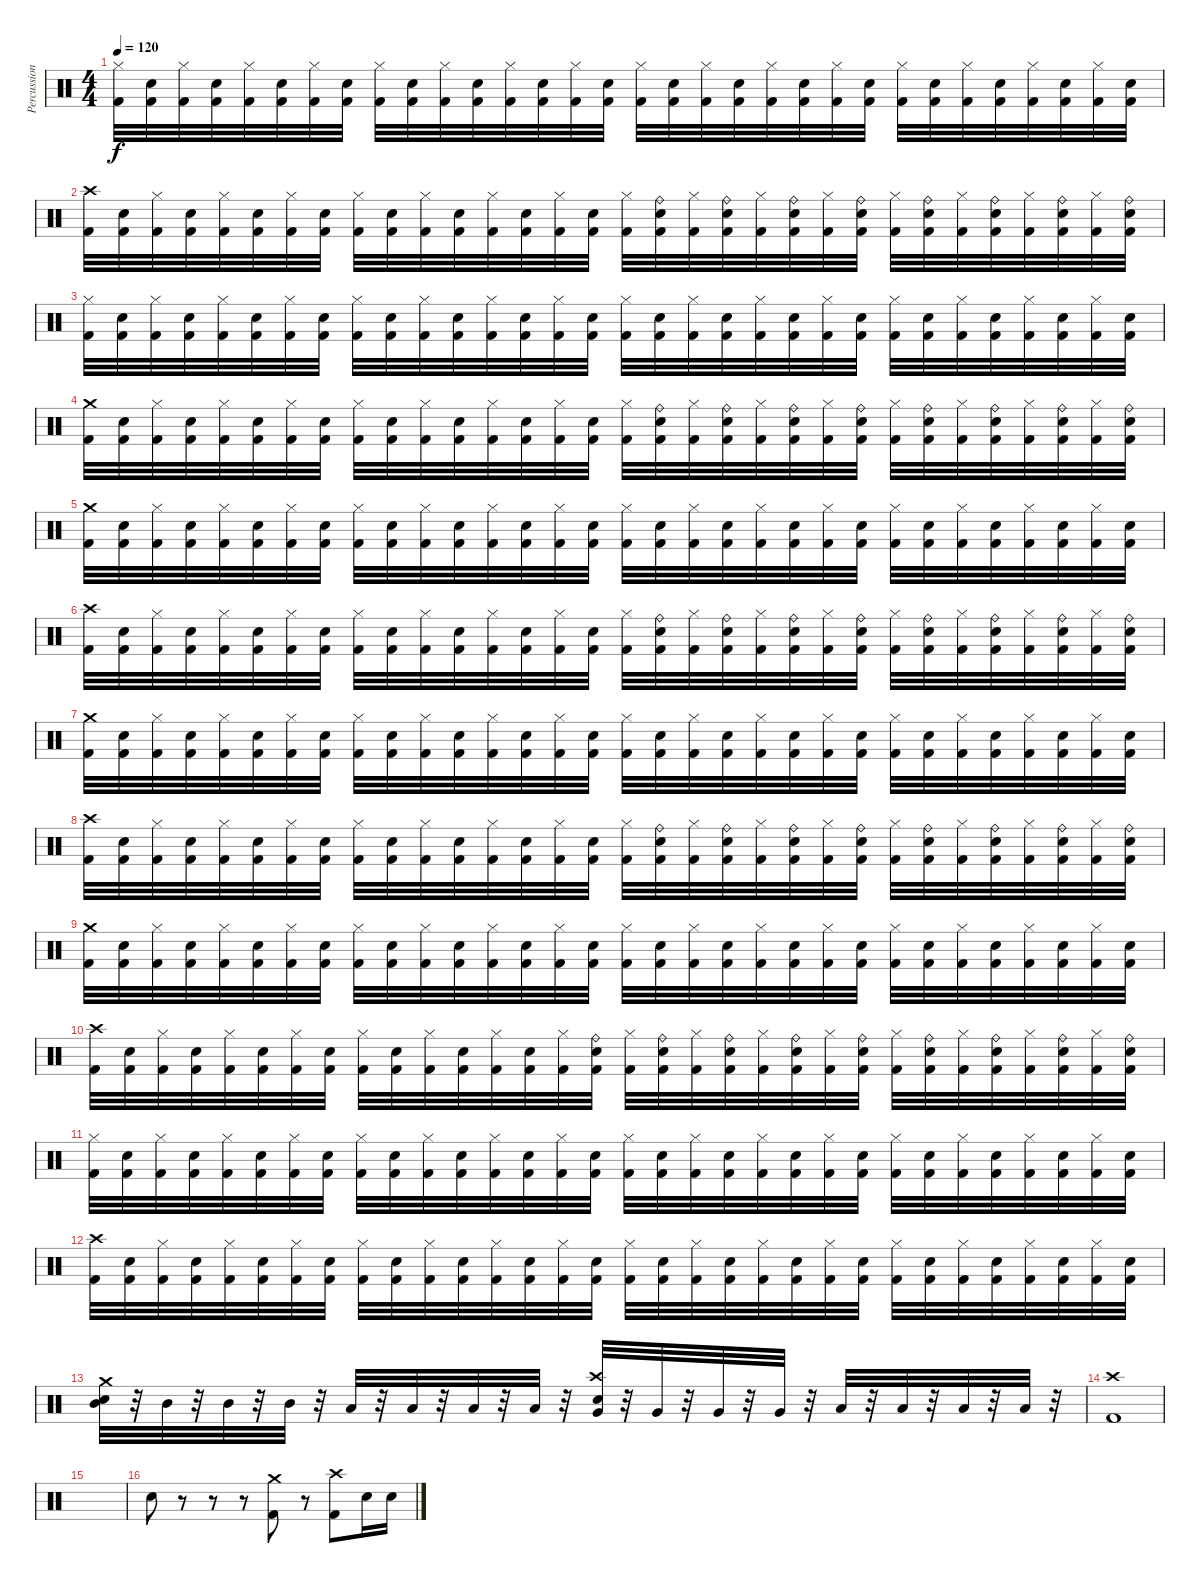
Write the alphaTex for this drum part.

\track ("Percussion" "Percussion") {instrument percussion}
\staff {score}
\articulation defaults
\ts (4 4)
\tempo 120
\clef neutral
\ks c
("Hi-Hat (closed)" "Kick (hit) 2").32{dy f} ("Snare (hit) 2" "Kick (hit) 2").32 ("Hi-Hat (closed)" "Kick (hit) 2").32 ("Snare (hit) 2" "Kick (hit) 2").32 ("Hi-Hat (closed)" "Kick (hit) 2").32 ("Snare (hit) 2" "Kick (hit) 2").32 ("Hi-Hat (closed)" "Kick (hit) 2").32 ("Snare (hit) 2" "Kick (hit) 2").32 ("Hi-Hat (closed)" "Kick (hit) 2").32 ("Snare (hit) 2" "Kick (hit) 2").32 ("Hi-Hat (closed)" "Kick (hit) 2").32 ("Snare (hit) 2" "Kick (hit) 2").32 ("Hi-Hat (closed)" "Kick (hit) 2").32 ("Snare (hit) 2" "Kick (hit) 2").32 ("Hi-Hat (closed)" "Kick (hit) 2").32 ("Snare (hit) 2" "Kick (hit) 2").32 ("Hi-Hat (closed)" "Kick (hit) 2").32 ("Snare (hit) 2" "Kick (hit) 2").32 ("Hi-Hat (closed)" "Kick (hit) 2").32 ("Snare (hit) 2" "Kick (hit) 2").32 ("Hi-Hat (closed)" "Kick (hit) 2").32 ("Snare (hit) 2" "Kick (hit) 2").32 ("Hi-Hat (closed)" "Kick (hit) 2").32 ("Snare (hit) 2" "Kick (hit) 2").32 ("Hi-Hat (closed)" "Kick (hit) 2").32 ("Snare (hit) 2" "Kick (hit) 2").32 ("Hi-Hat (closed)" "Kick (hit) 2").32 ("Snare (hit) 2" "Kick (hit) 2").32 ("Hi-Hat (closed)" "Kick (hit) 2").32 ("Snare (hit) 2" "Kick (hit) 2").32 ("Hi-Hat (closed)" "Kick (hit) 2").32 ("Snare (hit) 2" "Kick (hit) 2").32 |
("Crash high (hit)" "Kick (hit) 2").32 ("Snare (hit) 2" "Kick (hit) 2").32 ("Hi-Hat (closed)" "Kick (hit) 2").32 ("Snare (hit) 2" "Kick (hit) 2").32 ("Hi-Hat (closed)" "Kick (hit) 2").32 ("Snare (hit) 2" "Kick (hit) 2").32 ("Hi-Hat (closed)" "Kick (hit) 2").32 ("Snare (hit) 2" "Kick (hit) 2").32 ("Hi-Hat (closed)" "Kick (hit) 2").32 ("Snare (hit) 2" "Kick (hit) 2").32 ("Hi-Hat (closed)" "Kick (hit) 2").32 ("Snare (hit) 2" "Kick (hit) 2").32 ("Hi-Hat (closed)" "Kick (hit) 2").32 ("Snare (hit) 2" "Kick (hit) 2").32 ("Hi-Hat (closed)" "Kick (hit) 2").32 ("Snare (hit) 2" "Kick (hit) 2").32 ("Hi-Hat (closed)" "Kick (hit) 2").32 ("Snare (hit) 2" "Ride (bell)" "Kick (hit) 2").32 ("Hi-Hat (closed)" "Kick (hit) 2").32 ("Snare (hit) 2" "Ride (bell)" "Kick (hit) 2").32 ("Hi-Hat (closed)" "Kick (hit) 2").32 ("Snare (hit) 2" "Ride (bell)" "Kick (hit) 2").32 ("Hi-Hat (closed)" "Kick (hit) 2").32 ("Snare (hit) 2" "Ride (bell)" "Kick (hit) 2").32 ("Hi-Hat (closed)" "Kick (hit) 2").32 ("Snare (hit) 2" "Ride (bell)" "Kick (hit) 2").32 ("Hi-Hat (closed)" "Kick (hit) 2").32 ("Snare (hit) 2" "Ride (bell)" "Kick (hit) 2").32 ("Hi-Hat (closed)" "Kick (hit) 2").32 ("Snare (hit) 2" "Ride (bell)" "Kick (hit) 2").32 ("Hi-Hat (closed)" "Kick (hit) 2").32 ("Snare (hit) 2" "Ride (bell)" "Kick (hit) 2").32 |
("Hi-Hat (closed)" "Kick (hit) 2").32 ("Snare (hit) 2" "Kick (hit) 2").32 ("Hi-Hat (closed)" "Kick (hit) 2").32 ("Snare (hit) 2" "Kick (hit) 2").32 ("Hi-Hat (closed)" "Kick (hit) 2").32 ("Snare (hit) 2" "Kick (hit) 2").32 ("Hi-Hat (closed)" "Kick (hit) 2").32 ("Snare (hit) 2" "Kick (hit) 2").32 ("Hi-Hat (closed)" "Kick (hit) 2").32 ("Snare (hit) 2" "Kick (hit) 2").32 ("Hi-Hat (closed)" "Kick (hit) 2").32 ("Snare (hit) 2" "Kick (hit) 2").32 ("Hi-Hat (closed)" "Kick (hit) 2").32 ("Snare (hit) 2" "Kick (hit) 2").32 ("Hi-Hat (closed)" "Kick (hit) 2").32 ("Snare (hit) 2" "Kick (hit) 2").32 ("Hi-Hat (closed)" "Kick (hit) 2").32 ("Snare (hit) 2" "Kick (hit) 2").32 ("Hi-Hat (closed)" "Kick (hit) 2").32 ("Snare (hit) 2" "Kick (hit) 2").32 ("Hi-Hat (closed)" "Kick (hit) 2").32 ("Snare (hit) 2" "Kick (hit) 2").32 ("Hi-Hat (closed)" "Kick (hit) 2").32 ("Snare (hit) 2" "Kick (hit) 2").32 ("Hi-Hat (closed)" "Kick (hit) 2").32 ("Snare (hit) 2" "Kick (hit) 2").32 ("Hi-Hat (closed)" "Kick (hit) 2").32 ("Snare (hit) 2" "Kick (hit) 2").32 ("Hi-Hat (closed)" "Kick (hit) 2").32 ("Snare (hit) 2" "Kick (hit) 2").32 ("Hi-Hat (closed)" "Kick (hit) 2").32 ("Snare (hit) 2" "Kick (hit) 2").32 |
("Crash medium (hit)" "Kick (hit) 2").32 ("Snare (hit) 2" "Kick (hit) 2").32 ("Hi-Hat (closed)" "Kick (hit) 2").32 ("Snare (hit) 2" "Kick (hit) 2").32 ("Hi-Hat (closed)" "Kick (hit) 2").32 ("Snare (hit) 2" "Kick (hit) 2").32 ("Hi-Hat (closed)" "Kick (hit) 2").32 ("Snare (hit) 2" "Kick (hit) 2").32 ("Hi-Hat (closed)" "Kick (hit) 2").32 ("Snare (hit) 2" "Kick (hit) 2").32 ("Hi-Hat (closed)" "Kick (hit) 2").32 ("Snare (hit) 2" "Kick (hit) 2").32 ("Hi-Hat (closed)" "Kick (hit) 2").32 ("Snare (hit) 2" "Kick (hit) 2").32 ("Hi-Hat (closed)" "Kick (hit) 2").32 ("Snare (hit) 2" "Kick (hit) 2").32 ("Hi-Hat (closed)" "Kick (hit) 2").32 ("Snare (hit) 2" "Ride (bell)" "Kick (hit) 2").32 ("Hi-Hat (closed)" "Kick (hit) 2").32 ("Snare (hit) 2" "Ride (bell)" "Kick (hit) 2").32 ("Hi-Hat (closed)" "Kick (hit) 2").32 ("Snare (hit) 2" "Ride (bell)" "Kick (hit) 2").32 ("Hi-Hat (closed)" "Kick (hit) 2").32 ("Snare (hit) 2" "Ride (bell)" "Kick (hit) 2").32 ("Hi-Hat (closed)" "Kick (hit) 2").32 ("Snare (hit) 2" "Ride (bell)" "Kick (hit) 2").32 ("Hi-Hat (closed)" "Kick (hit) 2").32 ("Snare (hit) 2" "Ride (bell)" "Kick (hit) 2").32 ("Hi-Hat (closed)" "Kick (hit) 2").32 ("Snare (hit) 2" "Ride (bell)" "Kick (hit) 2").32 ("Hi-Hat (closed)" "Kick (hit) 2").32 ("Snare (hit) 2" "Ride (bell)" "Kick (hit) 2").32 |
("Crash medium (hit)" "Kick (hit) 2").32 ("Snare (hit) 2" "Kick (hit) 2").32 ("Hi-Hat (closed)" "Kick (hit) 2").32 ("Snare (hit) 2" "Kick (hit) 2").32 ("Hi-Hat (closed)" "Kick (hit) 2").32 ("Snare (hit) 2" "Kick (hit) 2").32 ("Hi-Hat (closed)" "Kick (hit) 2").32 ("Snare (hit) 2" "Kick (hit) 2").32 ("Hi-Hat (closed)" "Kick (hit) 2").32 ("Snare (hit) 2" "Kick (hit) 2").32 ("Hi-Hat (closed)" "Kick (hit) 2").32 ("Snare (hit) 2" "Kick (hit) 2").32 ("Hi-Hat (closed)" "Kick (hit) 2").32 ("Snare (hit) 2" "Kick (hit) 2").32 ("Hi-Hat (closed)" "Kick (hit) 2").32 ("Snare (hit) 2" "Kick (hit) 2").32 ("Hi-Hat (closed)" "Kick (hit) 2").32 ("Snare (hit) 2" "Kick (hit) 2").32 ("Hi-Hat (closed)" "Kick (hit) 2").32 ("Snare (hit) 2" "Kick (hit) 2").32 ("Hi-Hat (closed)" "Kick (hit) 2").32 ("Snare (hit) 2" "Kick (hit) 2").32 ("Hi-Hat (closed)" "Kick (hit) 2").32 ("Snare (hit) 2" "Kick (hit) 2").32 ("Hi-Hat (closed)" "Kick (hit) 2").32 ("Snare (hit) 2" "Kick (hit) 2").32 ("Hi-Hat (closed)" "Kick (hit) 2").32 ("Snare (hit) 2" "Kick (hit) 2").32 ("Hi-Hat (closed)" "Kick (hit) 2").32 ("Snare (hit) 2" "Kick (hit) 2").32 ("Hi-Hat (closed)" "Kick (hit) 2").32 ("Snare (hit) 2" "Kick (hit) 2").32 |
("Crash high (hit)" "Kick (hit) 2").32 ("Snare (hit) 2" "Kick (hit) 2").32 ("Hi-Hat (closed)" "Kick (hit) 2").32 ("Snare (hit) 2" "Kick (hit) 2").32 ("Hi-Hat (closed)" "Kick (hit) 2").32 ("Snare (hit) 2" "Kick (hit) 2").32 ("Hi-Hat (closed)" "Kick (hit) 2").32 ("Snare (hit) 2" "Kick (hit) 2").32 ("Hi-Hat (closed)" "Kick (hit) 2").32 ("Snare (hit) 2" "Kick (hit) 2").32 ("Hi-Hat (closed)" "Kick (hit) 2").32 ("Snare (hit) 2" "Kick (hit) 2").32 ("Hi-Hat (closed)" "Kick (hit) 2").32 ("Snare (hit) 2" "Kick (hit) 2").32 ("Hi-Hat (closed)" "Kick (hit) 2").32 ("Snare (hit) 2" "Kick (hit) 2").32 ("Hi-Hat (closed)" "Kick (hit) 2").32 ("Snare (hit) 2" "Ride (bell)" "Kick (hit) 2").32 ("Hi-Hat (closed)" "Kick (hit) 2").32 ("Snare (hit) 2" "Ride (bell)" "Kick (hit) 2").32 ("Hi-Hat (closed)" "Kick (hit) 2").32 ("Snare (hit) 2" "Ride (bell)" "Kick (hit) 2").32 ("Hi-Hat (closed)" "Kick (hit) 2").32 ("Snare (hit) 2" "Ride (bell)" "Kick (hit) 2").32 ("Hi-Hat (closed)" "Kick (hit) 2").32 ("Snare (hit) 2" "Ride (bell)" "Kick (hit) 2").32 ("Hi-Hat (closed)" "Kick (hit) 2").32 ("Snare (hit) 2" "Ride (bell)" "Kick (hit) 2").32 ("Hi-Hat (closed)" "Kick (hit) 2").32 ("Snare (hit) 2" "Ride (bell)" "Kick (hit) 2").32 ("Hi-Hat (closed)" "Kick (hit) 2").32 ("Snare (hit) 2" "Ride (bell)" "Kick (hit) 2").32 |
("Crash medium (hit)" "Kick (hit) 2").32 ("Snare (hit) 2" "Kick (hit) 2").32 ("Hi-Hat (closed)" "Kick (hit) 2").32 ("Snare (hit) 2" "Kick (hit) 2").32 ("Hi-Hat (closed)" "Kick (hit) 2").32 ("Snare (hit) 2" "Kick (hit) 2").32 ("Hi-Hat (closed)" "Kick (hit) 2").32 ("Snare (hit) 2" "Kick (hit) 2").32 ("Hi-Hat (closed)" "Kick (hit) 2").32 ("Snare (hit) 2" "Kick (hit) 2").32 ("Hi-Hat (closed)" "Kick (hit) 2").32 ("Snare (hit) 2" "Kick (hit) 2").32 ("Hi-Hat (closed)" "Kick (hit) 2").32 ("Snare (hit) 2" "Kick (hit) 2").32 ("Hi-Hat (closed)" "Kick (hit) 2").32 ("Snare (hit) 2" "Kick (hit) 2").32 ("Hi-Hat (closed)" "Kick (hit) 2").32 ("Snare (hit) 2" "Kick (hit) 2").32 ("Hi-Hat (closed)" "Kick (hit) 2").32 ("Snare (hit) 2" "Kick (hit) 2").32 ("Hi-Hat (closed)" "Kick (hit) 2").32 ("Snare (hit) 2" "Kick (hit) 2").32 ("Hi-Hat (closed)" "Kick (hit) 2").32 ("Snare (hit) 2" "Kick (hit) 2").32 ("Hi-Hat (closed)" "Kick (hit) 2").32 ("Snare (hit) 2" "Kick (hit) 2").32 ("Hi-Hat (closed)" "Kick (hit) 2").32 ("Snare (hit) 2" "Kick (hit) 2").32 ("Hi-Hat (closed)" "Kick (hit) 2").32 ("Snare (hit) 2" "Kick (hit) 2").32 ("Hi-Hat (closed)" "Kick (hit) 2").32 ("Snare (hit) 2" "Kick (hit) 2").32 |
("Crash high (hit)" "Kick (hit) 2").32 ("Snare (hit) 2" "Kick (hit) 2").32 ("Hi-Hat (closed)" "Kick (hit) 2").32 ("Snare (hit) 2" "Kick (hit) 2").32 ("Hi-Hat (closed)" "Kick (hit) 2").32 ("Snare (hit) 2" "Kick (hit) 2").32 ("Hi-Hat (closed)" "Kick (hit) 2").32 ("Snare (hit) 2" "Kick (hit) 2").32 ("Hi-Hat (closed)" "Kick (hit) 2").32 ("Snare (hit) 2" "Kick (hit) 2").32 ("Hi-Hat (closed)" "Kick (hit) 2").32 ("Snare (hit) 2" "Kick (hit) 2").32 ("Hi-Hat (closed)" "Kick (hit) 2").32 ("Snare (hit) 2" "Kick (hit) 2").32 ("Hi-Hat (closed)" "Kick (hit) 2").32 ("Snare (hit) 2" "Kick (hit) 2").32 ("Hi-Hat (closed)" "Kick (hit) 2").32 ("Snare (hit) 2" "Ride (bell)" "Kick (hit) 2").32 ("Hi-Hat (closed)" "Kick (hit) 2").32 ("Snare (hit) 2" "Ride (bell)" "Kick (hit) 2").32 ("Hi-Hat (closed)" "Kick (hit) 2").32 ("Snare (hit) 2" "Ride (bell)" "Kick (hit) 2").32 ("Hi-Hat (closed)" "Kick (hit) 2").32 ("Snare (hit) 2" "Ride (bell)" "Kick (hit) 2").32 ("Hi-Hat (closed)" "Kick (hit) 2").32 ("Snare (hit) 2" "Ride (bell)" "Kick (hit) 2").32 ("Hi-Hat (closed)" "Kick (hit) 2").32 ("Snare (hit) 2" "Ride (bell)" "Kick (hit) 2").32 ("Hi-Hat (closed)" "Kick (hit) 2").32 ("Snare (hit) 2" "Ride (bell)" "Kick (hit) 2").32 ("Hi-Hat (closed)" "Kick (hit) 2").32 ("Snare (hit) 2" "Ride (bell)" "Kick (hit) 2").32 |
("Crash medium (hit)" "Kick (hit) 2").32 ("Snare (hit) 2" "Kick (hit) 2").32 ("Hi-Hat (closed)" "Kick (hit) 2").32 ("Snare (hit) 2" "Kick (hit) 2").32 ("Hi-Hat (closed)" "Kick (hit) 2").32 ("Snare (hit) 2" "Kick (hit) 2").32 ("Hi-Hat (closed)" "Kick (hit) 2").32 ("Snare (hit) 2" "Kick (hit) 2").32 ("Hi-Hat (closed)" "Kick (hit) 2").32 ("Snare (hit) 2" "Kick (hit) 2").32 ("Hi-Hat (closed)" "Kick (hit) 2").32 ("Snare (hit) 2" "Kick (hit) 2").32 ("Hi-Hat (closed)" "Kick (hit) 2").32 ("Snare (hit) 2" "Kick (hit) 2").32 ("Hi-Hat (closed)" "Kick (hit) 2").32 ("Snare (hit) 2" "Kick (hit) 2").32 ("Hi-Hat (closed)" "Kick (hit) 2").32 ("Snare (hit) 2" "Kick (hit) 2").32 ("Hi-Hat (closed)" "Kick (hit) 2").32 ("Snare (hit) 2" "Kick (hit) 2").32 ("Hi-Hat (closed)" "Kick (hit) 2").32 ("Snare (hit) 2" "Kick (hit) 2").32 ("Hi-Hat (closed)" "Kick (hit) 2").32 ("Snare (hit) 2" "Kick (hit) 2").32 ("Hi-Hat (closed)" "Kick (hit) 2").32 ("Snare (hit) 2" "Kick (hit) 2").32 ("Hi-Hat (closed)" "Kick (hit) 2").32 ("Snare (hit) 2" "Kick (hit) 2").32 ("Hi-Hat (closed)" "Kick (hit) 2").32 ("Snare (hit) 2" "Kick (hit) 2").32 ("Hi-Hat (closed)" "Kick (hit) 2").32 ("Snare (hit) 2" "Kick (hit) 2").32 |
("Crash high (hit)" "Kick (hit) 2").32 ("Snare (hit) 2" "Kick (hit) 2").32 ("Hi-Hat (closed)" "Kick (hit) 2").32 ("Snare (hit) 2" "Kick (hit) 2").32 ("Hi-Hat (closed)" "Kick (hit) 2").32 ("Snare (hit) 2" "Kick (hit) 2").32 ("Hi-Hat (closed)" "Kick (hit) 2").32 ("Snare (hit) 2" "Kick (hit) 2").32 ("Hi-Hat (closed)" "Kick (hit) 2").32 ("Snare (hit) 2" "Kick (hit) 2").32 ("Hi-Hat (closed)" "Kick (hit) 2").32 ("Snare (hit) 2" "Kick (hit) 2").32 ("Hi-Hat (closed)" "Kick (hit) 2").32 ("Snare (hit) 2" "Kick (hit) 2").32 ("Hi-Hat (closed)" "Kick (hit) 2").32 ("Snare (hit) 2" "Ride (bell)" "Kick (hit) 2").32 ("Hi-Hat (closed)" "Kick (hit) 2").32 ("Snare (hit) 2" "Ride (bell)" "Kick (hit) 2").32 ("Hi-Hat (closed)" "Kick (hit) 2").32 ("Snare (hit) 2" "Ride (bell)" "Kick (hit) 2").32 ("Hi-Hat (closed)" "Kick (hit) 2").32 ("Snare (hit) 2" "Ride (bell)" "Kick (hit) 2").32 ("Hi-Hat (closed)" "Kick (hit) 2").32 ("Snare (hit) 2" "Ride (bell)" "Kick (hit) 2").32 ("Hi-Hat (closed)" "Kick (hit) 2").32 ("Snare (hit) 2" "Ride (bell)" "Kick (hit) 2").32 ("Hi-Hat (closed)" "Kick (hit) 2").32 ("Snare (hit) 2" "Ride (bell)" "Kick (hit) 2").32 ("Hi-Hat (closed)" "Kick (hit) 2").32 ("Snare (hit) 2" "Ride (bell)" "Kick (hit) 2").32 ("Hi-Hat (closed)" "Kick (hit) 2").32 ("Snare (hit) 2" "Ride (bell)" "Kick (hit) 2").32 |
("Hi-Hat (closed)" "Kick (hit) 2").32 ("Snare (hit) 2" "Kick (hit) 2").32 ("Hi-Hat (closed)" "Kick (hit) 2").32 ("Snare (hit) 2" "Kick (hit) 2").32 ("Hi-Hat (closed)" "Kick (hit) 2").32 ("Snare (hit) 2" "Kick (hit) 2").32 ("Hi-Hat (closed)" "Kick (hit) 2").32 ("Snare (hit) 2" "Kick (hit) 2").32 ("Hi-Hat (closed)" "Kick (hit) 2").32 ("Snare (hit) 2" "Kick (hit) 2").32 ("Hi-Hat (closed)" "Kick (hit) 2").32 ("Snare (hit) 2" "Kick (hit) 2").32 ("Hi-Hat (closed)" "Kick (hit) 2").32 ("Snare (hit) 2" "Kick (hit) 2").32 ("Hi-Hat (closed)" "Kick (hit) 2").32 ("Snare (hit) 2" "Kick (hit) 2").32 ("Hi-Hat (closed)" "Kick (hit) 2").32 ("Snare (hit) 2" "Kick (hit) 2").32 ("Hi-Hat (closed)" "Kick (hit) 2").32 ("Snare (hit) 2" "Kick (hit) 2").32 ("Hi-Hat (closed)" "Kick (hit) 2").32 ("Snare (hit) 2" "Kick (hit) 2").32 ("Hi-Hat (closed)" "Kick (hit) 2").32 ("Snare (hit) 2" "Kick (hit) 2").32 ("Hi-Hat (closed)" "Kick (hit) 2").32 ("Snare (hit) 2" "Kick (hit) 2").32 ("Hi-Hat (closed)" "Kick (hit) 2").32 ("Snare (hit) 2" "Kick (hit) 2").32 ("Hi-Hat (closed)" "Kick (hit) 2").32 ("Snare (hit) 2" "Kick (hit) 2").32 ("Hi-Hat (closed)" "Kick (hit) 2").32 ("Snare (hit) 2" "Kick (hit) 2").32 |
("Crash high (hit)" "Kick (hit) 2").32 ("Snare (hit) 2" "Kick (hit) 2").32 ("Hi-Hat (closed)" "Kick (hit) 2").32 ("Snare (hit) 2" "Kick (hit) 2").32 ("Hi-Hat (closed)" "Kick (hit) 2").32 ("Snare (hit) 2" "Kick (hit) 2").32 ("Hi-Hat (closed)" "Kick (hit) 2").32 ("Snare (hit) 2" "Kick (hit) 2").32 ("Hi-Hat (closed)" "Kick (hit) 2").32 ("Snare (hit) 2" "Kick (hit) 2").32 ("Hi-Hat (closed)" "Kick (hit) 2").32 ("Snare (hit) 2" "Kick (hit) 2").32 ("Hi-Hat (closed)" "Kick (hit) 2").32 ("Snare (hit) 2" "Kick (hit) 2").32 ("Hi-Hat (closed)" "Kick (hit) 2").32 ("Snare (hit) 2" "Kick (hit) 2").32 ("Hi-Hat (closed)" "Kick (hit) 2").32 ("Snare (hit) 2" "Kick (hit) 2").32 ("Hi-Hat (closed)" "Kick (hit) 2").32 ("Snare (hit) 2" "Kick (hit) 2").32 ("Hi-Hat (closed)" "Kick (hit) 2").32 ("Snare (hit) 2" "Kick (hit) 2").32 ("Hi-Hat (closed)" "Kick (hit) 2").32 ("Snare (hit) 2" "Kick (hit) 2").32 ("Hi-Hat (closed)" "Kick (hit) 2").32 ("Snare (hit) 2" "Kick (hit) 2").32 ("Hi-Hat (closed)" "Kick (hit) 2").32 ("Snare (hit) 2" "Kick (hit) 2").32 ("Hi-Hat (closed)" "Kick (hit) 2").32 ("Snare (hit) 2" "Kick (hit) 2").32 ("Hi-Hat (closed)" "Kick (hit) 2").32 ("Snare (hit) 2" "Kick (hit) 2").32 |
("Mid Tom (hit)" "Crash medium (hit)" "Snare (hit) 2").32 r.32 "Mid Tom (hit)".32 r.32 "Mid Tom (hit)".32 r.32 "Mid Tom (hit)".32 r.32 "Low Tom (hit)".32 r.32 "Low Tom (hit)".32 r.32 "Low Tom (hit)".32 r.32 "Low Tom (hit)".32 r.32 ("Very Low Tom (hit)" "Crash high (hit)" "Snare (hit) 2").32 r.32 "Very Low Tom (hit)".32 r.32 "Very Low Tom (hit)".32 r.32 "Very Low Tom (hit)".32 r.32 "Low Floor Tom (hit)".32 r.32 "Low Floor Tom (hit)".32 r.32 "Low Floor Tom (hit)".32 r.32 "Low Floor Tom (hit)".32 r.32 |
("Crash high (hit)" "Kick (hit) 2").1 |
|
"Snare (hit) 2".8 r.8 r.8 r.8 ("Crash medium (hit)" "Kick (hit) 2").8 r.8 ("Crash high (hit)" "Kick (hit) 2").8 "Snare (hit) 2".16 "Snare (hit) 2".16
